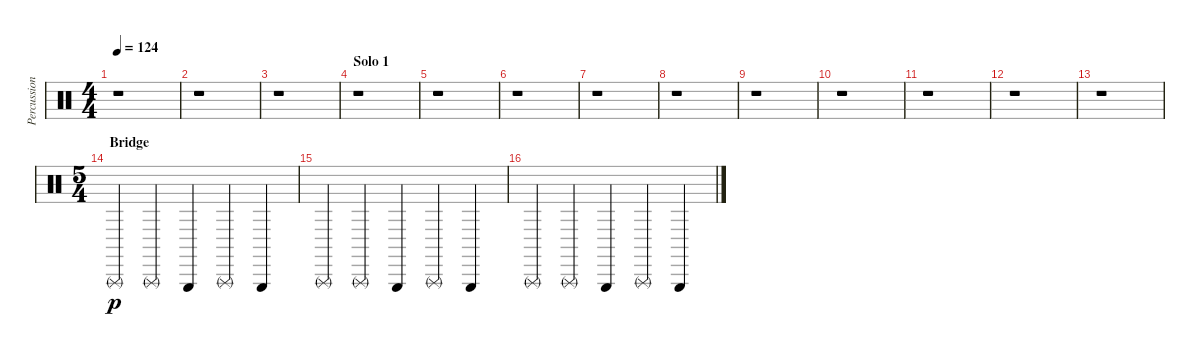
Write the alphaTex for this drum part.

\track ("Percussion" "Percussion") {instrument percussion}
\staff {score}
\articulation defaults
\ts (4 4)
\tempo 124
\clef neutral
\ks c
r.1{dy f} |
r.1 |
r.1 |
\section ("" "Solo 1")
r.1 |
r.1 |
r.1 |
r.1 |
r.1 |
r.1 |
r.1 |
r.1 |
r.1 |
r.1 |
\ts (5 4)
\section ("" "Bridge")
"Triangle (rnute)".4{dy p} "Triangle (rnute)".4 "Triangle (hit)".4 "Triangle (rnute)".4 "Triangle (hit)".4 |
"Triangle (rnute)".4 "Triangle (rnute)".4 "Triangle (hit)".4 "Triangle (rnute)".4 "Triangle (hit)".4 |
"Triangle (rnute)".4 "Triangle (rnute)".4 "Triangle (hit)".4 "Triangle (rnute)".4 "Triangle (hit)".4
